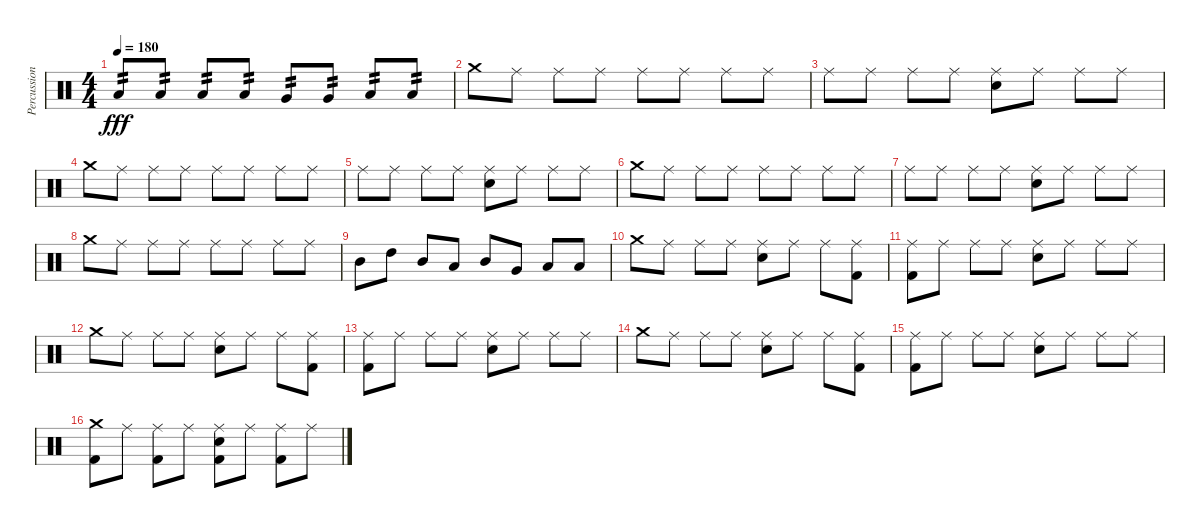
\track ("Percussion" "Percussion") {instrument percussion}
\staff {score}
\articulation defaults
\ts (4 4)
\tempo 180
\clef neutral
\ks c "Low Tom (hit)".8{tp 2 dy fff balance 8} "Low Tom (hit)".8{tp 2} "Low Tom (hit)".8{tp 2 balance 7} "Low Tom (hit)".8{tp 2} "Very Low Tom (hit)".8{tp 2 balance 6} "Very Low Tom (hit)".8{tp 2} "Low Floor Tom (hit)".8{tp 2 balance 5} "Low Floor Tom (hit)".8{tp 2}
|
"Crash medium (hit)".8 "Ride (middle)".8 "Ride (middle)".8 "Ride (middle)".8 "Ride (middle)".8 "Ride (middle)".8 "Ride (middle)".8 "Ride (middle)".8 |
"Ride (middle)".8 "Ride (middle)".8 "Ride (middle)".8 "Ride (middle)".8 ("Ride (middle)" "Electric Snare (hit)").8 "Ride (middle)".8 "Ride (middle)".8 "Ride (middle)".8 |
"Crash medium (hit)".8 "Ride (middle)".8 "Ride (middle)".8 "Ride (middle)".8 "Ride (middle)".8 "Ride (middle)".8 "Ride (middle)".8 "Ride (middle)".8 |
"Ride (middle)".8 "Ride (middle)".8 "Ride (middle)".8 "Ride (middle)".8 ("Ride (middle)" "Electric Snare (hit)").8 "Ride (middle)".8 "Ride (middle)".8 "Ride (middle)".8 |
"Crash medium (hit)".8 "Ride (middle)".8 "Ride (middle)".8 "Ride (middle)".8 "Ride (middle)".8 "Ride (middle)".8 "Ride (middle)".8 "Ride (middle)".8 |
"Ride (middle)".8 "Ride (middle)".8 "Ride (middle)".8 "Ride (middle)".8 ("Ride (middle)" "Electric Snare (hit)").8 "Ride (middle)".8 "Ride (middle)".8 "Ride (middle)".8 |
"Crash medium (hit)".8 "Ride (middle)".8 "Ride (middle)".8 "Ride (middle)".8 "Ride (middle)".8 "Ride (middle)".8 "Ride (middle)".8 "Ride (middle)".8 |
"Mid Tom (hit)".8 "High Tom (hit)".8 "Mid Tom (hit)".8 "Low Tom (hit)".8 "Mid Tom (hit)".8 "Very Low Tom (hit)".8 "Low Floor Tom (hit)".8 "Low Floor Tom (hit)".8 |
"Crash medium (hit)".8 "Ride (middle)".8 "Ride (middle)".8 "Ride (middle)".8 ("Ride (middle)" "Electric Snare (hit)").8 "Ride (middle)".8 "Ride (middle)".8 ("Ride (middle)" "Kick (hit) 2").8 |
("Ride (middle)" "Kick (hit) 2").8 "Ride (middle)".8 "Ride (middle)".8 "Ride (middle)".8 ("Ride (middle)" "Electric Snare (hit)").8 "Ride (middle)".8 "Ride (middle)".8 "Ride (middle)".8 |
"Crash medium (hit)".8 "Ride (middle)".8 "Ride (middle)".8 "Ride (middle)".8 ("Ride (middle)" "Electric Snare (hit)").8 "Ride (middle)".8 "Ride (middle)".8 ("Ride (middle)" "Kick (hit) 2").8 |
("Ride (middle)" "Kick (hit) 2").8 "Ride (middle)".8 "Ride (middle)".8 "Ride (middle)".8 ("Ride (middle)" "Electric Snare (hit)").8 "Ride (middle)".8 "Ride (middle)".8 "Ride (middle)".8 |
"Crash medium (hit)".8 "Ride (middle)".8 "Ride (middle)".8 "Ride (middle)".8 ("Ride (middle)" "Electric Snare (hit)").8 "Ride (middle)".8 "Ride (middle)".8 ("Ride (middle)" "Kick (hit) 2").8 |
("Ride (middle)" "Kick (hit) 2").8 "Ride (middle)".8 "Ride (middle)".8 "Ride (middle)".8 ("Ride (middle)" "Electric Snare (hit)").8 "Ride (middle)".8 "Ride (middle)".8 "Ride (middle)".8 |
("Crash medium (hit)" "Kick (hit) 2").8 "Ride (middle)".8 ("Ride (middle)" "Kick (hit) 2").8 "Ride (middle)".8 ("Ride (middle)" "Electric Snare (hit)" "Kick (hit) 2").8 "Ride (middle)".8 ("Ride (middle)" "Kick (hit) 2").8 "Ride (middle)".8
